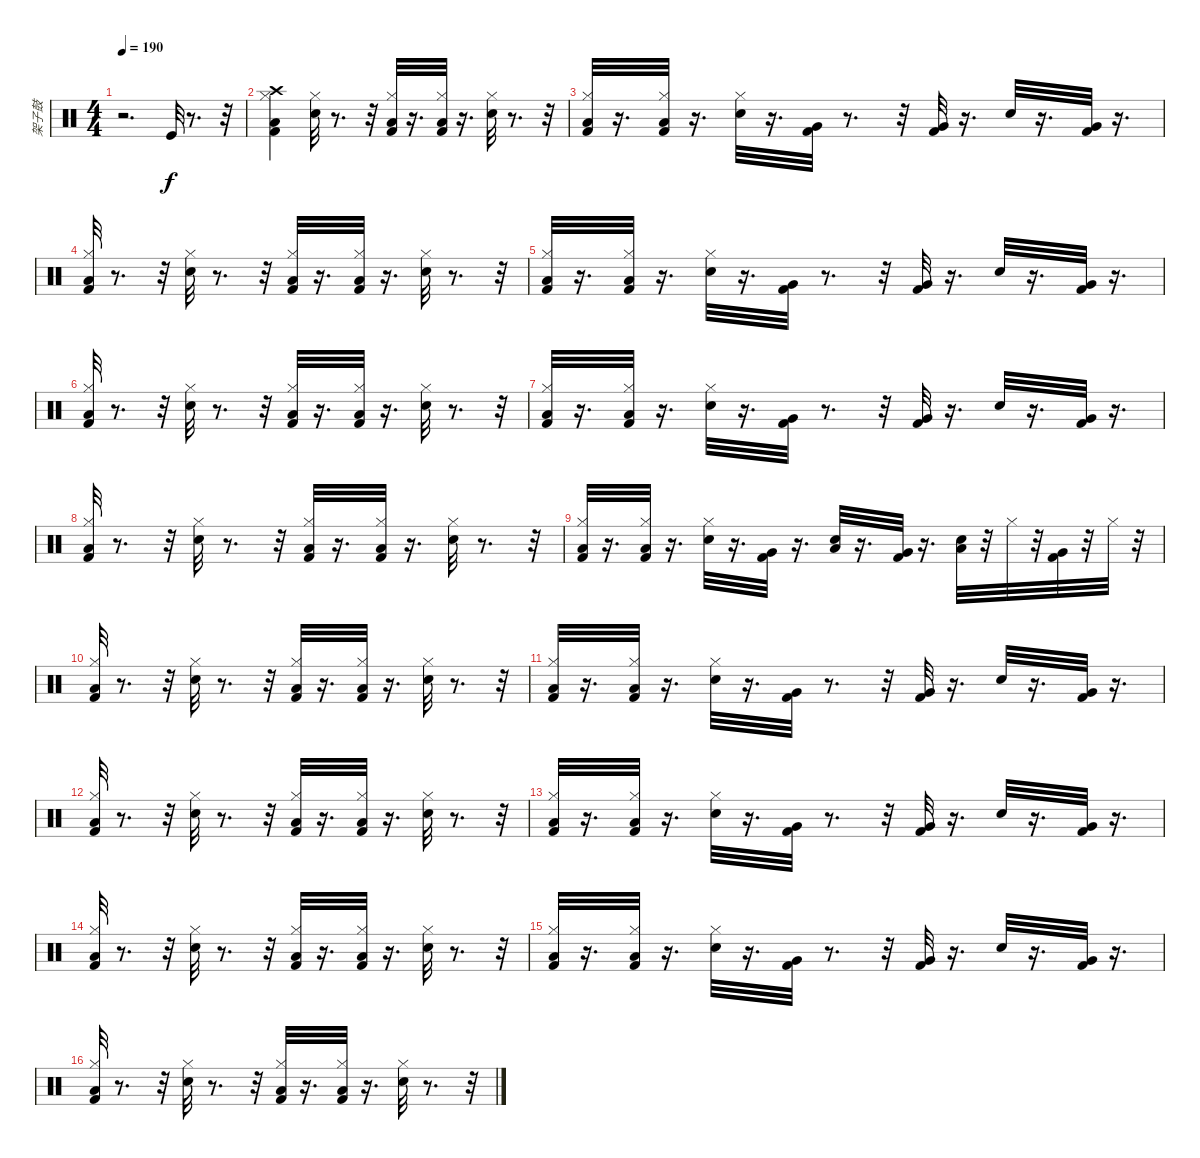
\track ("架子鼓" "架子鼓") {instrument percussion}
\staff {score}
\articulation defaults
\ts (4 4)
\tempo 190
\clef neutral
\ks c
r.2{d dy f} "Kick (hit)".32 r.8{d} r.32 |
("Kick (hit) 2" "Hi-Hat (closed)" "Low Floor Tom (hit)" "Crash high (hit)").4 ("Hi-Hat (closed)" "Electric Snare (hit)").32 r.8{d} r.32 ("Kick (hit) 2" "Hi-Hat (closed)" "Low Floor Tom (hit)").32 r.16{d} ("Kick (hit) 2" "Hi-Hat (closed)" "Low Floor Tom (hit)").32 r.16{d} ("Hi-Hat (closed)" "Electric Snare (hit)").32 r.8{d} r.32 |
("Kick (hit) 2" "Hi-Hat (closed)" "Low Floor Tom (hit)").32 r.16{d} ("Kick (hit) 2" "Hi-Hat (closed)" "Low Floor Tom (hit)").32 r.16{d} ("Hi-Hat (closed)" "Electric Snare (hit)").32 r.16{d} ("Kick (hit) 2" "Very Low Tom (hit)").32 r.8{d} r.32 ("Kick (hit) 2" "Very Low Tom (hit)").32 r.16{d} "Snare (hit) 2".32 r.16{d} ("Kick (hit) 2" "Very Low Tom (hit)").32 r.16{d} |
("Kick (hit) 2" "Hi-Hat (closed)" "Low Floor Tom (hit)").32 r.8{d} r.32 ("Hi-Hat (closed)" "Electric Snare (hit)").32 r.8{d} r.32 ("Kick (hit) 2" "Hi-Hat (closed)" "Low Floor Tom (hit)").32 r.16{d} ("Kick (hit) 2" "Hi-Hat (closed)" "Low Floor Tom (hit)").32 r.16{d} ("Hi-Hat (closed)" "Electric Snare (hit)").32 r.8{d} r.32 |
("Kick (hit) 2" "Hi-Hat (closed)" "Low Floor Tom (hit)").32 r.16{d} ("Kick (hit) 2" "Hi-Hat (closed)" "Low Floor Tom (hit)").32 r.16{d} ("Hi-Hat (closed)" "Electric Snare (hit)").32 r.16{d} ("Kick (hit) 2" "Very Low Tom (hit)").32 r.8{d} r.32 ("Kick (hit) 2" "Very Low Tom (hit)").32 r.16{d} "Snare (hit) 2".32 r.16{d} ("Kick (hit) 2" "Very Low Tom (hit)").32 r.16{d} |
("Kick (hit) 2" "Hi-Hat (closed)" "Low Floor Tom (hit)").32 r.8{d} r.32 ("Hi-Hat (closed)" "Electric Snare (hit)").32 r.8{d} r.32 ("Kick (hit) 2" "Hi-Hat (closed)" "Low Floor Tom (hit)").32 r.16{d} ("Kick (hit) 2" "Hi-Hat (closed)" "Low Floor Tom (hit)").32 r.16{d} ("Hi-Hat (closed)" "Electric Snare (hit)").32 r.8{d} r.32 |
("Kick (hit) 2" "Hi-Hat (closed)" "Low Floor Tom (hit)").32 r.16{d} ("Kick (hit) 2" "Hi-Hat (closed)" "Low Floor Tom (hit)").32 r.16{d} ("Hi-Hat (closed)" "Electric Snare (hit)").32 r.16{d} ("Kick (hit) 2" "Very Low Tom (hit)").32 r.8{d} r.32 ("Kick (hit) 2" "Very Low Tom (hit)").32 r.16{d} "Snare (hit) 2".32 r.16{d} ("Kick (hit) 2" "Very Low Tom (hit)").32 r.16{d} |
("Kick (hit) 2" "Hi-Hat (closed)" "Low Floor Tom (hit)").32 r.8{d} r.32 ("Hi-Hat (closed)" "Electric Snare (hit)").32 r.8{d} r.32 ("Kick (hit) 2" "Hi-Hat (closed)" "Low Floor Tom (hit)").32 r.16{d} ("Kick (hit) 2" "Hi-Hat (closed)" "Low Floor Tom (hit)").32 r.16{d} ("Hi-Hat (closed)" "Electric Snare (hit)").32 r.8{d} r.32 |
("Kick (hit) 2" "Hi-Hat (closed)" "Low Floor Tom (hit)").32 r.16{d} ("Kick (hit) 2" "Hi-Hat (closed)" "Low Floor Tom (hit)").32 r.16{d} ("Hi-Hat (closed)" "Electric Snare (hit)").32 r.16{d} ("Kick (hit) 2" "Very Low Tom (hit)").32 r.16{d} ("Snare (hit) 2" "Low Floor Tom (hit)").32 r.16{d} ("Kick (hit) 2" "Very Low Tom (hit)").32 r.16{d} ("Low Floor Tom (hit)" "Snare (hit) 2").32 r.32 "Hi-Hat (closed)".32 r.32 ("Kick (hit) 2" "Very Low Tom (hit)").32 r.32 "Hi-Hat (closed)".32 r.32 |
("Kick (hit) 2" "Hi-Hat (closed)" "Low Floor Tom (hit)").32 r.8{d} r.32 ("Hi-Hat (closed)" "Electric Snare (hit)").32 r.8{d} r.32 ("Kick (hit) 2" "Hi-Hat (closed)" "Low Floor Tom (hit)").32 r.16{d} ("Kick (hit) 2" "Hi-Hat (closed)" "Low Floor Tom (hit)").32 r.16{d} ("Hi-Hat (closed)" "Electric Snare (hit)").32 r.8{d} r.32 |
("Kick (hit) 2" "Hi-Hat (closed)" "Low Floor Tom (hit)").32 r.16{d} ("Kick (hit) 2" "Hi-Hat (closed)" "Low Floor Tom (hit)").32 r.16{d} ("Hi-Hat (closed)" "Electric Snare (hit)").32 r.16{d} ("Kick (hit) 2" "Very Low Tom (hit)").32 r.8{d} r.32 ("Kick (hit) 2" "Very Low Tom (hit)").32 r.16{d} "Snare (hit) 2".32 r.16{d} ("Kick (hit) 2" "Very Low Tom (hit)").32 r.16{d} |
("Kick (hit) 2" "Hi-Hat (closed)" "Low Floor Tom (hit)").32 r.8{d} r.32 ("Hi-Hat (closed)" "Electric Snare (hit)").32 r.8{d} r.32 ("Kick (hit) 2" "Hi-Hat (closed)" "Low Floor Tom (hit)").32 r.16{d} ("Kick (hit) 2" "Hi-Hat (closed)" "Low Floor Tom (hit)").32 r.16{d} ("Hi-Hat (closed)" "Electric Snare (hit)").32 r.8{d} r.32 |
("Kick (hit) 2" "Hi-Hat (closed)" "Low Floor Tom (hit)").32 r.16{d} ("Kick (hit) 2" "Hi-Hat (closed)" "Low Floor Tom (hit)").32 r.16{d} ("Hi-Hat (closed)" "Electric Snare (hit)").32 r.16{d} ("Kick (hit) 2" "Very Low Tom (hit)").32 r.8{d} r.32 ("Kick (hit) 2" "Very Low Tom (hit)").32 r.16{d} "Snare (hit) 2".32 r.16{d} ("Kick (hit) 2" "Very Low Tom (hit)").32 r.16{d} |
("Kick (hit) 2" "Hi-Hat (closed)" "Low Floor Tom (hit)").32 r.8{d} r.32 ("Hi-Hat (closed)" "Electric Snare (hit)").32 r.8{d} r.32 ("Kick (hit) 2" "Hi-Hat (closed)" "Low Floor Tom (hit)").32 r.16{d} ("Kick (hit) 2" "Hi-Hat (closed)" "Low Floor Tom (hit)").32 r.16{d} ("Hi-Hat (closed)" "Electric Snare (hit)").32 r.8{d} r.32 |
("Kick (hit) 2" "Hi-Hat (closed)" "Low Floor Tom (hit)").32 r.16{d} ("Kick (hit) 2" "Hi-Hat (closed)" "Low Floor Tom (hit)").32 r.16{d} ("Hi-Hat (closed)" "Electric Snare (hit)").32 r.16{d} ("Kick (hit) 2" "Very Low Tom (hit)").32 r.8{d} r.32 ("Kick (hit) 2" "Very Low Tom (hit)").32 r.16{d} "Snare (hit) 2".32 r.16{d} ("Kick (hit) 2" "Very Low Tom (hit)").32 r.16{d} |
("Kick (hit) 2" "Hi-Hat (closed)" "Low Floor Tom (hit)").32 r.8{d} r.32 ("Hi-Hat (closed)" "Electric Snare (hit)").32 r.8{d} r.32 ("Kick (hit) 2" "Hi-Hat (closed)" "Low Floor Tom (hit)").32 r.16{d} ("Kick (hit) 2" "Hi-Hat (closed)" "Low Floor Tom (hit)").32 r.16{d} ("Hi-Hat (closed)" "Electric Snare (hit)").32 r.8{d} r.32
